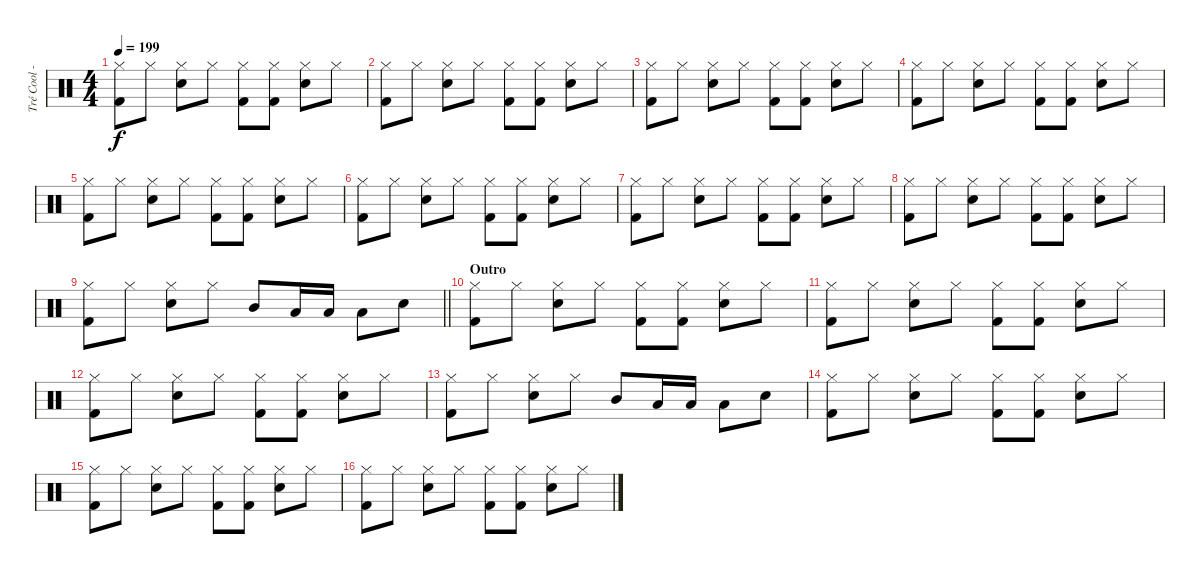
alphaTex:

\track ("Tré Cool - Drums" "Tré Cool -") {instrument percussion}
\staff {score}
\articulation defaults
\ts (4 4)
\tempo 199
\clef neutral
\ks c
("Hi-Hat (closed)" "Kick (hit) 2").8{dy f} "Hi-Hat (closed)".8 ("Hi-Hat (closed)" "Electric Snare (hit)").8 "Hi-Hat (closed)".8 ("Hi-Hat (closed)" "Kick (hit) 2").8 ("Hi-Hat (closed)" "Kick (hit) 2").8 ("Hi-Hat (closed)" "Electric Snare (hit)").8 "Hi-Hat (closed)".8 |
("Hi-Hat (closed)" "Kick (hit) 2").8 "Hi-Hat (closed)".8 ("Hi-Hat (closed)" "Electric Snare (hit)").8 "Hi-Hat (closed)".8 ("Hi-Hat (closed)" "Kick (hit) 2").8 ("Hi-Hat (closed)" "Kick (hit) 2").8 ("Hi-Hat (closed)" "Electric Snare (hit)").8 "Hi-Hat (closed)".8 |
("Hi-Hat (closed)" "Kick (hit) 2").8 "Hi-Hat (closed)".8 ("Hi-Hat (closed)" "Electric Snare (hit)").8 "Hi-Hat (closed)".8 ("Hi-Hat (closed)" "Kick (hit) 2").8 ("Hi-Hat (closed)" "Kick (hit) 2").8 ("Hi-Hat (closed)" "Electric Snare (hit)").8 "Hi-Hat (closed)".8 |
("Hi-Hat (closed)" "Kick (hit) 2").8 "Hi-Hat (closed)".8 ("Hi-Hat (closed)" "Electric Snare (hit)").8 "Hi-Hat (closed)".8 ("Hi-Hat (closed)" "Kick (hit) 2").8 ("Hi-Hat (closed)" "Kick (hit) 2").8 ("Hi-Hat (closed)" "Electric Snare (hit)").8 "Hi-Hat (closed)".8 |
("Hi-Hat (closed)" "Kick (hit) 2").8 "Hi-Hat (closed)".8 ("Hi-Hat (closed)" "Electric Snare (hit)").8 "Hi-Hat (closed)".8 ("Hi-Hat (closed)" "Kick (hit) 2").8 ("Hi-Hat (closed)" "Kick (hit) 2").8 ("Hi-Hat (closed)" "Electric Snare (hit)").8 "Hi-Hat (closed)".8 |
("Hi-Hat (closed)" "Kick (hit) 2").8 "Hi-Hat (closed)".8 ("Hi-Hat (closed)" "Electric Snare (hit)").8 "Hi-Hat (closed)".8 ("Hi-Hat (closed)" "Kick (hit) 2").8 ("Hi-Hat (closed)" "Kick (hit) 2").8 ("Hi-Hat (closed)" "Electric Snare (hit)").8 "Hi-Hat (closed)".8 |
("Hi-Hat (closed)" "Kick (hit) 2").8 "Hi-Hat (closed)".8 ("Hi-Hat (closed)" "Electric Snare (hit)").8 "Hi-Hat (closed)".8 ("Hi-Hat (closed)" "Kick (hit) 2").8 ("Hi-Hat (closed)" "Kick (hit) 2").8 ("Hi-Hat (closed)" "Electric Snare (hit)").8 "Hi-Hat (closed)".8 |
("Hi-Hat (closed)" "Kick (hit) 2").8 "Hi-Hat (closed)".8 ("Hi-Hat (closed)" "Electric Snare (hit)").8 "Hi-Hat (closed)".8 ("Hi-Hat (closed)" "Kick (hit) 2").8 ("Hi-Hat (closed)" "Kick (hit) 2").8 ("Hi-Hat (closed)" "Electric Snare (hit)").8 "Hi-Hat (closed)".8 |
\barLineRight lightlight
("Hi-Hat (closed)" "Kick (hit) 2").8 "Hi-Hat (closed)".8 ("Hi-Hat (closed)" "Electric Snare (hit)").8 "Hi-Hat (closed)".8 "Mid Tom (hit)".8 "Low Tom (hit)".16 "Low Tom (hit)".16 "Low Tom (hit)".8 "Electric Snare (hit)".8 |
\section ("" "Outro")
("Hi-Hat (closed)" "Kick (hit) 2").8 "Hi-Hat (closed)".8 ("Hi-Hat (closed)" "Electric Snare (hit)").8 "Hi-Hat (closed)".8 ("Hi-Hat (closed)" "Kick (hit) 2").8 ("Hi-Hat (closed)" "Kick (hit) 2").8 ("Hi-Hat (closed)" "Electric Snare (hit)").8 "Hi-Hat (closed)".8 |
("Hi-Hat (closed)" "Kick (hit) 2").8 "Hi-Hat (closed)".8 ("Hi-Hat (closed)" "Electric Snare (hit)").8 "Hi-Hat (closed)".8 ("Hi-Hat (closed)" "Kick (hit) 2").8 ("Hi-Hat (closed)" "Kick (hit) 2").8 ("Hi-Hat (closed)" "Electric Snare (hit)").8 "Hi-Hat (closed)".8 |
("Hi-Hat (closed)" "Kick (hit) 2").8 "Hi-Hat (closed)".8 ("Hi-Hat (closed)" "Electric Snare (hit)").8 "Hi-Hat (closed)".8 ("Hi-Hat (closed)" "Kick (hit) 2").8 ("Hi-Hat (closed)" "Kick (hit) 2").8 ("Hi-Hat (closed)" "Electric Snare (hit)").8 "Hi-Hat (closed)".8 |
("Hi-Hat (closed)" "Kick (hit) 2").8 "Hi-Hat (closed)".8 ("Hi-Hat (closed)" "Electric Snare (hit)").8 "Hi-Hat (closed)".8 "Mid Tom (hit)".8 "Low Tom (hit)".16 "Low Tom (hit)".16 "Low Tom (hit)".8 "Electric Snare (hit)".8 |
("Hi-Hat (closed)" "Kick (hit) 2").8 "Hi-Hat (closed)".8 ("Hi-Hat (closed)" "Electric Snare (hit)").8 "Hi-Hat (closed)".8 ("Hi-Hat (closed)" "Kick (hit) 2").8 ("Hi-Hat (closed)" "Kick (hit) 2").8 ("Hi-Hat (closed)" "Electric Snare (hit)").8 "Hi-Hat (closed)".8 |
("Hi-Hat (closed)" "Kick (hit) 2").8 "Hi-Hat (closed)".8 ("Hi-Hat (closed)" "Electric Snare (hit)").8 "Hi-Hat (closed)".8 ("Hi-Hat (closed)" "Kick (hit) 2").8 ("Hi-Hat (closed)" "Kick (hit) 2").8 ("Hi-Hat (closed)" "Electric Snare (hit)").8 "Hi-Hat (closed)".8 |
("Hi-Hat (closed)" "Kick (hit) 2").8 "Hi-Hat (closed)".8 ("Hi-Hat (closed)" "Electric Snare (hit)").8 "Hi-Hat (closed)".8 ("Hi-Hat (closed)" "Kick (hit) 2").8 ("Hi-Hat (closed)" "Kick (hit) 2").8 ("Hi-Hat (closed)" "Electric Snare (hit)").8 "Hi-Hat (closed)".8
